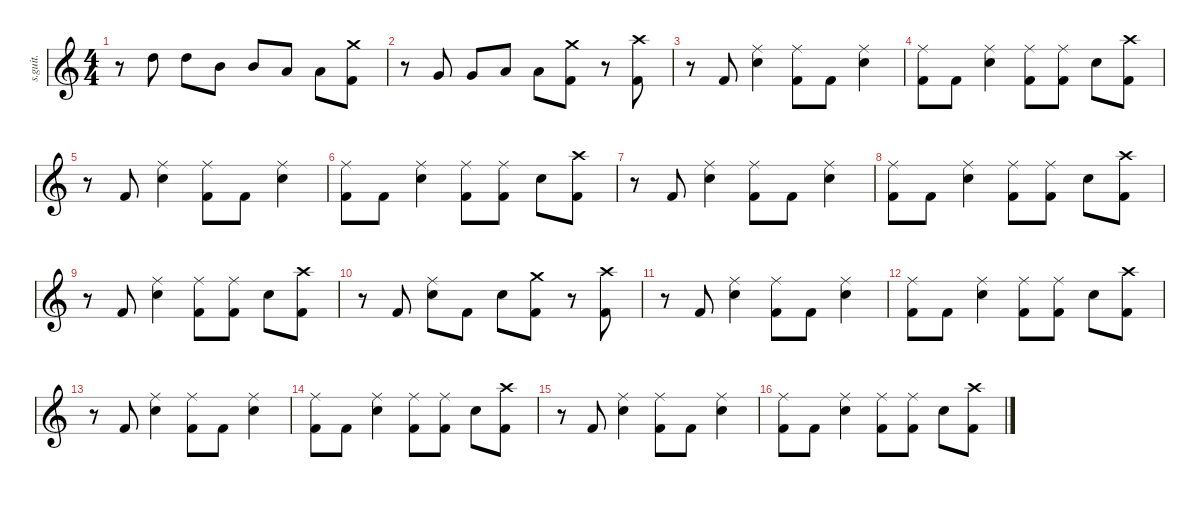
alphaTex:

\defaultSystemsLayout 4
\hideDynamics
\bracketExtendMode nobrackets
\track ("Nick Menza (Drums)" "s.guit.") {instrument percussion}
\staff {score}
\articulation defaults
\ts (4 4)
\tempo (196 hide)
\clef g2
\ks c
r.8{dy f} "High Tom (hit)".8{lyrics (0 "") lyrics (1 "") lyrics (2 "") lyrics (3 "") lyrics (4 "") dy fff} "High Tom (hit)".8{lyrics (0 "") lyrics (1 "") lyrics (2 "") lyrics (3 "") lyrics (4 "")} "Mid Tom (hit)".8{lyrics (0 "") lyrics (1 "") lyrics (2 "") lyrics (3 "") lyrics (4 "")} "Mid Tom (hit)".8{lyrics (0 "") lyrics (1 "") lyrics (2 "") lyrics (3 "") lyrics (4 "")} "Low Tom (hit)".8{lyrics (0 "") lyrics (1 "") lyrics (2 "") lyrics (3 "") lyrics (4 "")} "Low Tom (hit)".8{lyrics (0 "") lyrics (1 "") lyrics (2 "") lyrics (3 "") lyrics (4 "")} ("Crash medium (hit)" "Kick (hit) 2").8{lyrics (0 "") lyrics (1 "") lyrics (2 "") lyrics (3 "") lyrics (4 "") dy f} |
r.8 "Very Low Tom (hit)".8{lyrics (0 "") lyrics (1 "") lyrics (2 "") lyrics (3 "") lyrics (4 "")} "Very Low Tom (hit)".8{lyrics (0 "") lyrics (1 "") lyrics (2 "") lyrics (3 "") lyrics (4 "")} "Low Floor Tom (hit)".8{lyrics (0 "") lyrics (1 "") lyrics (2 "") lyrics (3 "") lyrics (4 "")} "Low Floor Tom (hit)".8{lyrics (0 "") lyrics (1 "") lyrics (2 "") lyrics (3 "") lyrics (4 "")} ("Crash medium (hit)" "Kick (hit) 2").8{lyrics (0 "") lyrics (1 "") lyrics (2 "") lyrics (3 "") lyrics (4 "")} r.8 ("Crash high (hit)" "Kick (hit) 2").8{lyrics (0 "") lyrics (1 "") lyrics (2 "") lyrics (3 "") lyrics (4 "")} |
r.8 "Kick (hit) 2".8{lyrics (0 "") lyrics (1 "") lyrics (2 "") lyrics (3 "") lyrics (4 "") dy fff} ("Ride (middle)" "Snare (hit) 2").4{lyrics (0 "") lyrics (1 "") lyrics (2 "") lyrics (3 "") lyrics (4 "") dy f} ("Ride (middle)" "Kick (hit) 2").8{lyrics (0 "") lyrics (1 "") lyrics (2 "") lyrics (3 "") lyrics (4 "")} "Kick (hit) 2".8{lyrics (0 "") lyrics (1 "") lyrics (2 "") lyrics (3 "") lyrics (4 "") dy fff} ("Ride (middle)" "Snare (hit) 2").4{lyrics (0 "") lyrics (1 "") lyrics (2 "") lyrics (3 "") lyrics (4 "") dy f} |
("Ride (middle)" "Kick (hit) 2").8{lyrics (0 "") lyrics (1 "") lyrics (2 "") lyrics (3 "") lyrics (4 "")} "Kick (hit) 2".8{lyrics (0 "") lyrics (1 "") lyrics (2 "") lyrics (3 "") lyrics (4 "") dy fff} ("Ride (middle)" "Snare (hit) 2").4{lyrics (0 "") lyrics (1 "") lyrics (2 "") lyrics (3 "") lyrics (4 "") dy f} ("Ride (middle)" "Kick (hit) 2").8{lyrics (0 "") lyrics (1 "") lyrics (2 "") lyrics (3 "") lyrics (4 "")} ("Ride (middle)" "Kick (hit) 2").8{lyrics (0 "") lyrics (1 "") lyrics (2 "") lyrics (3 "") lyrics (4 "")} "Snare (hit) 2".8{lyrics (0 "") lyrics (1 "") lyrics (2 "") lyrics (3 "") lyrics (4 "")} ("Crash high (hit)" "Kick (hit) 2").8{lyrics (0 "") lyrics (1 "") lyrics (2 "") lyrics (3 "") lyrics (4 "")} |
r.8 "Kick (hit) 2".8{lyrics (0 "") lyrics (1 "") lyrics (2 "") lyrics (3 "") lyrics (4 "") dy fff} ("Ride (middle)" "Snare (hit) 2").4{lyrics (0 "") lyrics (1 "") lyrics (2 "") lyrics (3 "") lyrics (4 "") dy f} ("Ride (middle)" "Kick (hit) 2").8{lyrics (0 "") lyrics (1 "") lyrics (2 "") lyrics (3 "") lyrics (4 "")} "Kick (hit) 2".8{lyrics (0 "") lyrics (1 "") lyrics (2 "") lyrics (3 "") lyrics (4 "") dy fff} ("Ride (middle)" "Snare (hit) 2").4{lyrics (0 "") lyrics (1 "") lyrics (2 "") lyrics (3 "") lyrics (4 "") dy f} |
("Ride (middle)" "Kick (hit) 2").8{lyrics (0 "") lyrics (1 "") lyrics (2 "") lyrics (3 "") lyrics (4 "")} "Kick (hit) 2".8{lyrics (0 "") lyrics (1 "") lyrics (2 "") lyrics (3 "") lyrics (4 "") dy fff} ("Ride (middle)" "Snare (hit) 2").4{lyrics (0 "") lyrics (1 "") lyrics (2 "") lyrics (3 "") lyrics (4 "") dy f} ("Ride (middle)" "Kick (hit) 2").8{lyrics (0 "") lyrics (1 "") lyrics (2 "") lyrics (3 "") lyrics (4 "")} ("Ride (middle)" "Kick (hit) 2").8{lyrics (0 "") lyrics (1 "") lyrics (2 "") lyrics (3 "") lyrics (4 "")} "Snare (hit) 2".8{lyrics (0 "") lyrics (1 "") lyrics (2 "") lyrics (3 "") lyrics (4 "")} ("Crash high (hit)" "Kick (hit) 2").8{lyrics (0 "") lyrics (1 "") lyrics (2 "") lyrics (3 "") lyrics (4 "")} |
r.8 "Kick (hit) 2".8{lyrics (0 "") lyrics (1 "") lyrics (2 "") lyrics (3 "") lyrics (4 "") dy fff} ("Ride (middle)" "Snare (hit) 2").4{lyrics (0 "") lyrics (1 "") lyrics (2 "") lyrics (3 "") lyrics (4 "") dy f} ("Ride (middle)" "Kick (hit) 2").8{lyrics (0 "") lyrics (1 "") lyrics (2 "") lyrics (3 "") lyrics (4 "")} "Kick (hit) 2".8{lyrics (0 "") lyrics (1 "") lyrics (2 "") lyrics (3 "") lyrics (4 "") dy fff} ("Ride (middle)" "Snare (hit) 2").4{lyrics (0 "") lyrics (1 "") lyrics (2 "") lyrics (3 "") lyrics (4 "") dy f} |
("Ride (middle)" "Kick (hit) 2").8{lyrics (0 "") lyrics (1 "") lyrics (2 "") lyrics (3 "") lyrics (4 "")} "Kick (hit) 2".8{lyrics (0 "") lyrics (1 "") lyrics (2 "") lyrics (3 "") lyrics (4 "") dy fff} ("Ride (middle)" "Snare (hit) 2").4{lyrics (0 "") lyrics (1 "") lyrics (2 "") lyrics (3 "") lyrics (4 "") dy f} ("Ride (middle)" "Kick (hit) 2").8{lyrics (0 "") lyrics (1 "") lyrics (2 "") lyrics (3 "") lyrics (4 "")} ("Ride (middle)" "Kick (hit) 2").8{lyrics (0 "") lyrics (1 "") lyrics (2 "") lyrics (3 "") lyrics (4 "")} "Snare (hit) 2".8{lyrics (0 "") lyrics (1 "") lyrics (2 "") lyrics (3 "") lyrics (4 "")} ("Crash high (hit)" "Kick (hit) 2").8{lyrics (0 "") lyrics (1 "") lyrics (2 "") lyrics (3 "") lyrics (4 "")} |
r.8 "Kick (hit) 2".8{lyrics (0 "") lyrics (1 "") lyrics (2 "") lyrics (3 "") lyrics (4 "") dy fff} ("Ride (middle)" "Snare (hit) 2").4{lyrics (0 "") lyrics (1 "") lyrics (2 "") lyrics (3 "") lyrics (4 "") dy f} ("Ride (middle)" "Kick (hit) 2").8{lyrics (0 "") lyrics (1 "") lyrics (2 "") lyrics (3 "") lyrics (4 "")} ("Ride (middle)" "Kick (hit) 2").8{lyrics (0 "") lyrics (1 "") lyrics (2 "") lyrics (3 "") lyrics (4 "")} "Snare (hit) 2".8{lyrics (0 "") lyrics (1 "") lyrics (2 "") lyrics (3 "") lyrics (4 "")} ("Crash high (hit)" "Kick (hit) 2").8{lyrics (0 "") lyrics (1 "") lyrics (2 "") lyrics (3 "") lyrics (4 "")} |
r.8 "Kick (hit) 2".8{lyrics (0 "") lyrics (1 "") lyrics (2 "") lyrics (3 "") lyrics (4 "") dy fff} ("Ride (middle)" "Snare (hit) 2").8{lyrics (0 "") lyrics (1 "") lyrics (2 "") lyrics (3 "") lyrics (4 "") dy f} "Kick (hit) 2".8{lyrics (0 "") lyrics (1 "") lyrics (2 "") lyrics (3 "") lyrics (4 "") dy fff} "Snare (hit) 2".8{lyrics (0 "") lyrics (1 "") lyrics (2 "") lyrics (3 "") lyrics (4 "") dy f} ("Crash medium (hit)" "Kick (hit) 2").8{lyrics (0 "") lyrics (1 "") lyrics (2 "") lyrics (3 "") lyrics (4 "")} r.8 ("Crash high (hit)" "Kick (hit) 2").8{lyrics (0 "") lyrics (1 "") lyrics (2 "") lyrics (3 "") lyrics (4 "")} |
r.8 "Kick (hit) 2".8{lyrics (0 "") lyrics (1 "") lyrics (2 "") lyrics (3 "") lyrics (4 "") dy fff} ("Ride (middle)" "Snare (hit) 2").4{lyrics (0 "") lyrics (1 "") lyrics (2 "") lyrics (3 "") lyrics (4 "") dy f} ("Ride (middle)" "Kick (hit) 2").8{lyrics (0 "") lyrics (1 "") lyrics (2 "") lyrics (3 "") lyrics (4 "")} "Kick (hit) 2".8{lyrics (0 "") lyrics (1 "") lyrics (2 "") lyrics (3 "") lyrics (4 "") dy fff} ("Ride (middle)" "Snare (hit) 2").4{lyrics (0 "") lyrics (1 "") lyrics (2 "") lyrics (3 "") lyrics (4 "") dy f} |
("Ride (middle)" "Kick (hit) 2").8{lyrics (0 "") lyrics (1 "") lyrics (2 "") lyrics (3 "") lyrics (4 "")} "Kick (hit) 2".8{lyrics (0 "") lyrics (1 "") lyrics (2 "") lyrics (3 "") lyrics (4 "") dy fff} ("Ride (middle)" "Snare (hit) 2").4{lyrics (0 "") lyrics (1 "") lyrics (2 "") lyrics (3 "") lyrics (4 "") dy f} ("Ride (middle)" "Kick (hit) 2").8{lyrics (0 "") lyrics (1 "") lyrics (2 "") lyrics (3 "") lyrics (4 "")} ("Ride (middle)" "Kick (hit) 2").8{lyrics (0 "") lyrics (1 "") lyrics (2 "") lyrics (3 "") lyrics (4 "")} "Snare (hit) 2".8{lyrics (0 "") lyrics (1 "") lyrics (2 "") lyrics (3 "") lyrics (4 "")} ("Crash high (hit)" "Kick (hit) 2").8{lyrics (0 "") lyrics (1 "") lyrics (2 "") lyrics (3 "") lyrics (4 "")} |
r.8 "Kick (hit) 2".8{lyrics (0 "") lyrics (1 "") lyrics (2 "") lyrics (3 "") lyrics (4 "") dy fff} ("Ride (middle)" "Snare (hit) 2").4{lyrics (0 "") lyrics (1 "") lyrics (2 "") lyrics (3 "") lyrics (4 "") dy f} ("Ride (middle)" "Kick (hit) 2").8{lyrics (0 "") lyrics (1 "") lyrics (2 "") lyrics (3 "") lyrics (4 "")} "Kick (hit) 2".8{lyrics (0 "") lyrics (1 "") lyrics (2 "") lyrics (3 "") lyrics (4 "") dy fff} ("Ride (middle)" "Snare (hit) 2").4{lyrics (0 "") lyrics (1 "") lyrics (2 "") lyrics (3 "") lyrics (4 "") dy f} |
("Ride (middle)" "Kick (hit) 2").8{lyrics (0 "") lyrics (1 "") lyrics (2 "") lyrics (3 "") lyrics (4 "")} "Kick (hit) 2".8{lyrics (0 "") lyrics (1 "") lyrics (2 "") lyrics (3 "") lyrics (4 "") dy fff} ("Ride (middle)" "Snare (hit) 2").4{lyrics (0 "") lyrics (1 "") lyrics (2 "") lyrics (3 "") lyrics (4 "") dy f} ("Ride (middle)" "Kick (hit) 2").8{lyrics (0 "") lyrics (1 "") lyrics (2 "") lyrics (3 "") lyrics (4 "")} ("Ride (middle)" "Kick (hit) 2").8{lyrics (0 "") lyrics (1 "") lyrics (2 "") lyrics (3 "") lyrics (4 "")} "Snare (hit) 2".8{lyrics (0 "") lyrics (1 "") lyrics (2 "") lyrics (3 "") lyrics (4 "")} ("Crash high (hit)" "Kick (hit) 2").8{lyrics (0 "") lyrics (1 "") lyrics (2 "") lyrics (3 "") lyrics (4 "")} |
r.8 "Kick (hit) 2".8{lyrics (0 "") lyrics (1 "") lyrics (2 "") lyrics (3 "") lyrics (4 "") dy fff} ("Ride (middle)" "Snare (hit) 2").4{lyrics (0 "") lyrics (1 "") lyrics (2 "") lyrics (3 "") lyrics (4 "") dy f} ("Ride (middle)" "Kick (hit) 2").8{lyrics (0 "") lyrics (1 "") lyrics (2 "") lyrics (3 "") lyrics (4 "")} "Kick (hit) 2".8{lyrics (0 "") lyrics (1 "") lyrics (2 "") lyrics (3 "") lyrics (4 "") dy fff} ("Ride (middle)" "Snare (hit) 2").4{lyrics (0 "") lyrics (1 "") lyrics (2 "") lyrics (3 "") lyrics (4 "") dy f} |
("Ride (middle)" "Kick (hit) 2").8{lyrics (0 "") lyrics (1 "") lyrics (2 "") lyrics (3 "") lyrics (4 "")} "Kick (hit) 2".8{lyrics (0 "") lyrics (1 "") lyrics (2 "") lyrics (3 "") lyrics (4 "") dy fff} ("Ride (middle)" "Snare (hit) 2").4{lyrics (0 "") lyrics (1 "") lyrics (2 "") lyrics (3 "") lyrics (4 "") dy f} ("Ride (middle)" "Kick (hit) 2").8{lyrics (0 "") lyrics (1 "") lyrics (2 "") lyrics (3 "") lyrics (4 "")} ("Ride (middle)" "Kick (hit) 2").8{lyrics (0 "") lyrics (1 "") lyrics (2 "") lyrics (3 "") lyrics (4 "")} "Snare (hit) 2".8{lyrics (0 "") lyrics (1 "") lyrics (2 "") lyrics (3 "") lyrics (4 "")} ("Crash high (hit)" "Kick (hit) 2").8{lyrics (0 "") lyrics (1 "") lyrics (2 "") lyrics (3 "") lyrics (4 "")}
